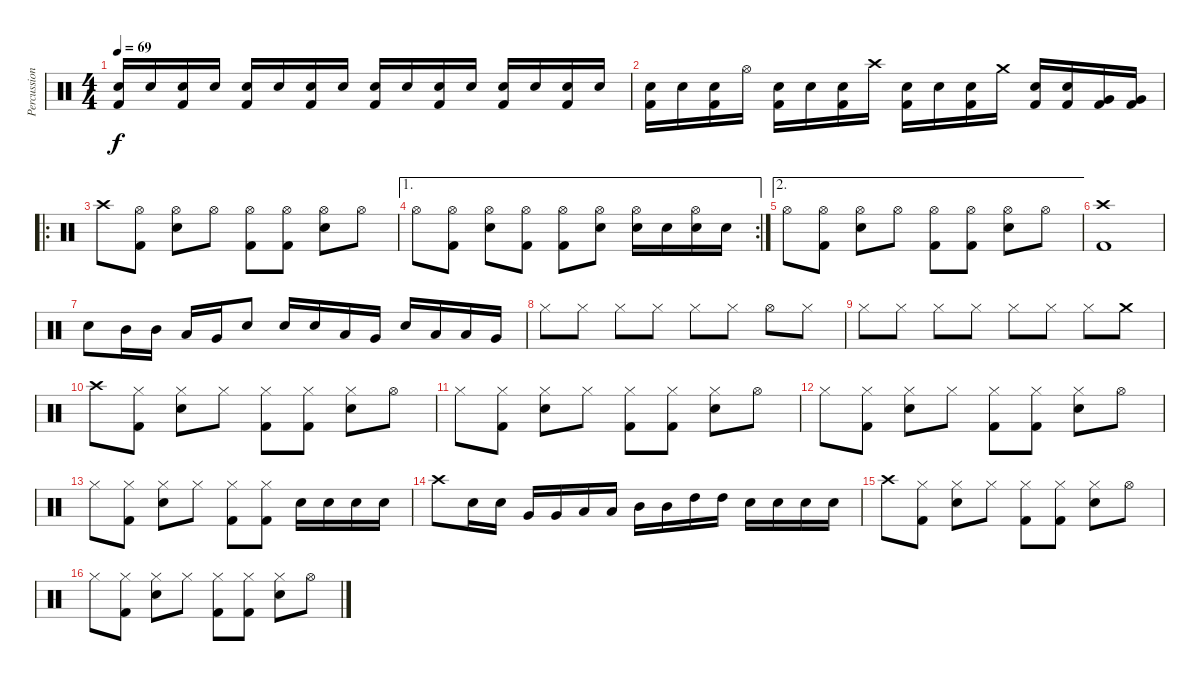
\track ("Percussion" "Percussion") {instrument percussion}
\staff {score}
\articulation defaults
\ts (4 4)
\tempo 69
\clef neutral
\ks c
("Electric Snare (hit)" "Kick (hit) 2").16{dy f} "Electric Snare (hit)".16 ("Electric Snare (hit)" "Kick (hit) 2").16 "Electric Snare (hit)".16 ("Electric Snare (hit)" "Kick (hit) 2").16 "Electric Snare (hit)".16 ("Electric Snare (hit)" "Kick (hit) 2").16 "Electric Snare (hit)".16 ("Electric Snare (hit)" "Kick (hit) 2").16 "Electric Snare (hit)".16 ("Electric Snare (hit)" "Kick (hit) 2").16 "Electric Snare (hit)".16 ("Electric Snare (hit)" "Kick (hit) 2").16 "Electric Snare (hit)".16 ("Electric Snare (hit)" "Kick (hit) 2").16 "Electric Snare (hit)".16 |
("Electric Snare (hit)" "Kick (hit) 2").16 "Electric Snare (hit)".16 ("Electric Snare (hit)" "Kick (hit) 2").16 "Hi-Hat (open)".16 ("Electric Snare (hit)" "Kick (hit) 2").16 "Electric Snare (hit)".16 ("Electric Snare (hit)" "Kick (hit) 2").16 "Crash high (hit)".16 ("Electric Snare (hit)" "Kick (hit) 2").16 "Electric Snare (hit)".16 ("Electric Snare (hit)" "Kick (hit) 2").16 "Crash medium (hit)".16 ("Electric Snare (hit)" "Kick (hit) 2").16 ("Electric Snare (hit)" "Kick (hit) 2").16 ("Very Low Tom (hit)" "Kick (hit) 2").16 ("Very Low Tom (hit)" "Kick (hit) 2").16 |
\ro "Crash high (hit)".8
("Hi-Hat (open)" "Kick (hit) 2").8 ("Hi-Hat (open)" "Electric Snare (hit)").8 "Hi-Hat (open)".8 ("Hi-Hat (open)" "Kick (hit) 2").8 ("Hi-Hat (open)" "Kick (hit) 2").8 ("Hi-Hat (open)" "Electric Snare (hit)").8 "Hi-Hat (open)".8 |
\ae 1
\rc 2 "Hi-Hat (open)".8
("Hi-Hat (open)" "Kick (hit) 2").8 ("Hi-Hat (open)" "Electric Snare (hit)").8 ("Hi-Hat (open)" "Kick (hit) 2").8 ("Hi-Hat (open)" "Kick (hit) 2").8 ("Hi-Hat (open)" "Electric Snare (hit)").8 ("Hi-Hat (open)" "Electric Snare (hit)").16 "Electric Snare (hit)".16 ("Hi-Hat (open)" "Electric Snare (hit)").16 "Electric Snare (hit)".16 |
\ae 2 "Hi-Hat (open)".8
("Hi-Hat (open)" "Kick (hit) 2").8 ("Hi-Hat (open)" "Electric Snare (hit)").8 "Hi-Hat (open)".8 ("Hi-Hat (open)" "Kick (hit) 2").8 ("Hi-Hat (open)" "Kick (hit) 2").8 ("Hi-Hat (open)" "Electric Snare (hit)").8 "Hi-Hat (open)".8 |
("Crash high (hit)" "Kick (hit) 2").1 |
"Electric Snare (hit)".8 "Mid Tom (hit)".16 "Mid Tom (hit)".16 "Low Tom (hit)".16 "Very Low Tom (hit)".16 "Electric Snare (hit)".8 "Electric Snare (hit)".16 "Electric Snare (hit)".16 "Low Tom (hit)".16 "Very Low Tom (hit)".16 "Electric Snare (hit)".16 "Low Tom (hit)".16 "Low Tom (hit)".16 "Very Low Tom (hit)".16 |
"Hi-Hat (closed)".8 "Hi-Hat (closed)".8 "Hi-Hat (closed)".8 "Hi-Hat (closed)".8 "Hi-Hat (closed)".8 "Hi-Hat (closed)".8 "Hi-Hat (open)".8 "Hi-Hat (closed)".8 |
"Hi-Hat (closed)".8 "Hi-Hat (closed)".8 "Hi-Hat (closed)".8 "Hi-Hat (closed)".8 "Hi-Hat (closed)".8 "Hi-Hat (closed)".8 "Hi-Hat (closed)".8 "Crash medium (hit)".8 |
"Crash high (hit)".8 ("Hi-Hat (closed)" "Kick (hit) 2").8 ("Hi-Hat (closed)" "Electric Snare (hit)").8 "Hi-Hat (closed)".8 ("Hi-Hat (closed)" "Kick (hit) 2").8 ("Hi-Hat (closed)" "Kick (hit) 2").8 ("Hi-Hat (closed)" "Electric Snare (hit)").8 "Hi-Hat (open)".8 |
"Hi-Hat (closed)".8 ("Hi-Hat (closed)" "Kick (hit) 2").8 ("Hi-Hat (closed)" "Electric Snare (hit)").8 "Hi-Hat (closed)".8 ("Hi-Hat (closed)" "Kick (hit) 2").8 ("Hi-Hat (closed)" "Kick (hit) 2").8 ("Hi-Hat (closed)" "Electric Snare (hit)").8 "Hi-Hat (open)".8 |
"Hi-Hat (closed)".8 ("Hi-Hat (closed)" "Kick (hit) 2").8 ("Hi-Hat (closed)" "Electric Snare (hit)").8 "Hi-Hat (closed)".8 ("Hi-Hat (closed)" "Kick (hit) 2").8 ("Hi-Hat (closed)" "Kick (hit) 2").8 ("Hi-Hat (closed)" "Electric Snare (hit)").8 "Hi-Hat (open)".8 |
"Hi-Hat (closed)".8 ("Hi-Hat (closed)" "Kick (hit) 2").8 ("Hi-Hat (closed)" "Electric Snare (hit)").8 "Hi-Hat (closed)".8 ("Hi-Hat (closed)" "Kick (hit) 2").8 ("Hi-Hat (closed)" "Kick (hit) 2").8 "Electric Snare (hit)".16 "Electric Snare (hit)".16 "Electric Snare (hit)".16 "Electric Snare (hit)".16 |
"Crash high (hit)".8 "Electric Snare (hit)".16 "Electric Snare (hit)".16 "Very Low Tom (hit)".16 "Very Low Tom (hit)".16 "Low Tom (hit)".16 "Low Tom (hit)".16 "Mid Tom (hit)".16 "Mid Tom (hit)".16 "High Tom (hit)".16 "High Tom (hit)".16 "Electric Snare (hit)".16 "Electric Snare (hit)".16 "Electric Snare (hit)".16 "Electric Snare (hit)".16 |
"Crash high (hit)".8 ("Hi-Hat (closed)" "Kick (hit) 2").8 ("Hi-Hat (closed)" "Electric Snare (hit)").8 "Hi-Hat (closed)".8 ("Hi-Hat (closed)" "Kick (hit) 2").8 ("Hi-Hat (closed)" "Kick (hit) 2").8 ("Hi-Hat (closed)" "Electric Snare (hit)").8 "Hi-Hat (open)".8 |
"Hi-Hat (closed)".8 ("Hi-Hat (closed)" "Kick (hit) 2").8 ("Hi-Hat (closed)" "Electric Snare (hit)").8 "Hi-Hat (closed)".8 ("Hi-Hat (closed)" "Kick (hit) 2").8 ("Hi-Hat (closed)" "Kick (hit) 2").8 ("Hi-Hat (closed)" "Electric Snare (hit)").8 "Hi-Hat (open)".8
